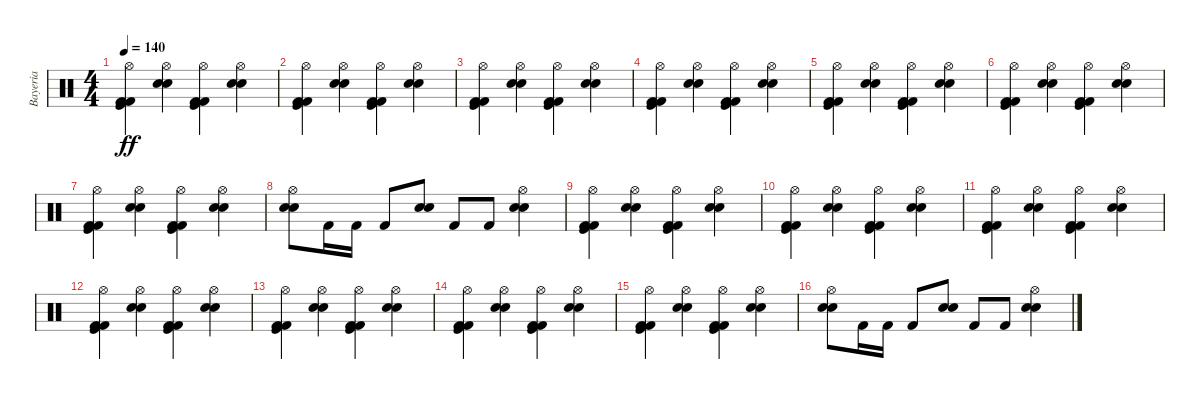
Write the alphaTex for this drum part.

\track ("Bayeria" "Bayeria") {instrument percussion}
\staff {score}
\articulation defaults
\ts (4 4)
\tempo 140
\clef neutral
\ks c
("Kick (hit) 2" "Kick (hit)" "Kick (hit) 2" "Hi-Hat (open)").4{dy ff} ("Electric Snare (hit)" "Snare (hit) 2" "Hi-Hat (open)").4 ("Kick (hit) 2" "Kick (hit)" "Kick (hit) 2" "Hi-Hat (open)").4 ("Electric Snare (hit)" "Snare (hit) 2" "Hi-Hat (open)").4 |
("Kick (hit) 2" "Kick (hit)" "Kick (hit) 2" "Hi-Hat (open)").4 ("Electric Snare (hit)" "Snare (hit) 2" "Hi-Hat (open)").4 ("Kick (hit) 2" "Kick (hit)" "Kick (hit) 2" "Hi-Hat (open)").4 ("Electric Snare (hit)" "Snare (hit) 2" "Hi-Hat (open)").4 |
("Kick (hit) 2" "Kick (hit)" "Kick (hit) 2" "Hi-Hat (open)").4 ("Electric Snare (hit)" "Snare (hit) 2" "Hi-Hat (open)").4 ("Kick (hit) 2" "Kick (hit)" "Kick (hit) 2" "Hi-Hat (open)").4 ("Electric Snare (hit)" "Snare (hit) 2" "Hi-Hat (open)").4 |
("Kick (hit) 2" "Kick (hit)" "Kick (hit) 2" "Hi-Hat (open)").4 ("Electric Snare (hit)" "Snare (hit) 2" "Hi-Hat (open)").4 ("Kick (hit) 2" "Kick (hit)" "Kick (hit) 2" "Hi-Hat (open)").4 ("Electric Snare (hit)" "Snare (hit) 2" "Hi-Hat (open)").4 |
("Kick (hit) 2" "Kick (hit)" "Kick (hit) 2" "Hi-Hat (open)").4 ("Electric Snare (hit)" "Snare (hit) 2" "Hi-Hat (open)").4 ("Kick (hit) 2" "Kick (hit)" "Kick (hit) 2" "Hi-Hat (open)").4 ("Electric Snare (hit)" "Snare (hit) 2" "Hi-Hat (open)").4 |
("Kick (hit) 2" "Kick (hit)" "Kick (hit) 2" "Hi-Hat (open)").4 ("Electric Snare (hit)" "Snare (hit) 2" "Hi-Hat (open)").4 ("Kick (hit) 2" "Kick (hit)" "Kick (hit) 2" "Hi-Hat (open)").4 ("Electric Snare (hit)" "Snare (hit) 2" "Hi-Hat (open)").4 |
("Kick (hit) 2" "Kick (hit)" "Kick (hit) 2" "Hi-Hat (open)").4 ("Electric Snare (hit)" "Snare (hit) 2" "Hi-Hat (open)").4 ("Kick (hit) 2" "Kick (hit)" "Kick (hit) 2" "Hi-Hat (open)").4 ("Electric Snare (hit)" "Snare (hit) 2" "Hi-Hat (open)").4 |
("Electric Snare (hit)" "Snare (hit) 2" "Hi-Hat (open)").8 "Kick (hit) 2".16 "Kick (hit) 2".16 "Kick (hit) 2".8 ("Electric Snare (hit)" "Snare (hit) 2").8 "Kick (hit) 2".8 "Kick (hit) 2".8 ("Electric Snare (hit)" "Snare (hit) 2" "Hi-Hat (open)").4 |
("Kick (hit) 2" "Kick (hit)" "Kick (hit) 2" "Hi-Hat (open)").4 ("Electric Snare (hit)" "Snare (hit) 2" "Hi-Hat (open)").4 ("Kick (hit) 2" "Kick (hit)" "Kick (hit) 2" "Hi-Hat (open)").4 ("Electric Snare (hit)" "Snare (hit) 2" "Hi-Hat (open)").4 |
("Kick (hit) 2" "Kick (hit)" "Kick (hit) 2" "Hi-Hat (open)").4 ("Electric Snare (hit)" "Snare (hit) 2" "Hi-Hat (open)").4 ("Kick (hit) 2" "Kick (hit)" "Kick (hit) 2" "Hi-Hat (open)").4 ("Electric Snare (hit)" "Snare (hit) 2" "Hi-Hat (open)").4 |
("Kick (hit) 2" "Kick (hit)" "Kick (hit) 2" "Hi-Hat (open)").4 ("Electric Snare (hit)" "Snare (hit) 2" "Hi-Hat (open)").4 ("Kick (hit) 2" "Kick (hit)" "Kick (hit) 2" "Hi-Hat (open)").4 ("Electric Snare (hit)" "Snare (hit) 2" "Hi-Hat (open)").4 |
("Kick (hit) 2" "Kick (hit)" "Kick (hit) 2" "Hi-Hat (open)").4 ("Electric Snare (hit)" "Snare (hit) 2" "Hi-Hat (open)").4 ("Kick (hit) 2" "Kick (hit)" "Kick (hit) 2" "Hi-Hat (open)").4 ("Electric Snare (hit)" "Snare (hit) 2" "Hi-Hat (open)").4 |
("Kick (hit) 2" "Kick (hit)" "Kick (hit) 2" "Hi-Hat (open)").4 ("Electric Snare (hit)" "Snare (hit) 2" "Hi-Hat (open)").4 ("Kick (hit) 2" "Kick (hit)" "Kick (hit) 2" "Hi-Hat (open)").4 ("Electric Snare (hit)" "Snare (hit) 2" "Hi-Hat (open)").4 |
("Kick (hit) 2" "Kick (hit)" "Kick (hit) 2" "Hi-Hat (open)").4 ("Electric Snare (hit)" "Snare (hit) 2" "Hi-Hat (open)").4 ("Kick (hit) 2" "Kick (hit)" "Kick (hit) 2" "Hi-Hat (open)").4 ("Electric Snare (hit)" "Snare (hit) 2" "Hi-Hat (open)").4 |
("Kick (hit) 2" "Kick (hit)" "Kick (hit) 2" "Hi-Hat (open)").4 ("Electric Snare (hit)" "Snare (hit) 2" "Hi-Hat (open)").4 ("Kick (hit) 2" "Kick (hit)" "Kick (hit) 2" "Hi-Hat (open)").4 ("Electric Snare (hit)" "Snare (hit) 2" "Hi-Hat (open)").4 |
("Electric Snare (hit)" "Snare (hit) 2" "Hi-Hat (open)").8 "Kick (hit) 2".16 "Kick (hit) 2".16 "Kick (hit) 2".8 ("Electric Snare (hit)" "Snare (hit) 2").8 "Kick (hit) 2".8 "Kick (hit) 2".8 ("Electric Snare (hit)" "Snare (hit) 2" "Hi-Hat (open)").4
